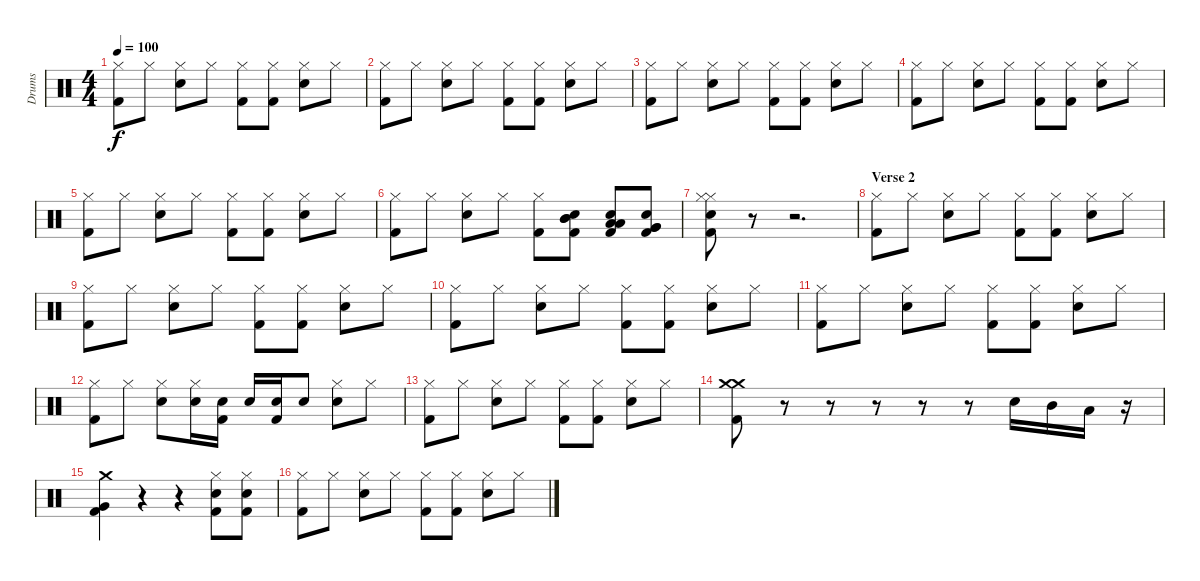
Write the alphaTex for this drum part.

\track ("Drums" "Drums") {instrument percussion}
\staff {score}
\articulation defaults
\ts (4 4)
\tempo 100
\clef neutral
\ks c
("Hi-Hat (closed)" "Kick (hit) 2").8{dy f} "Hi-Hat (closed)".8 ("Hi-Hat (closed)" "Electric Snare (hit)").8 "Hi-Hat (closed)".8 ("Hi-Hat (closed)" "Kick (hit) 2").8 ("Hi-Hat (closed)" "Kick (hit) 2").8 ("Hi-Hat (closed)" "Electric Snare (hit)").8 "Hi-Hat (closed)".8 |
("Hi-Hat (closed)" "Kick (hit) 2").8 "Hi-Hat (closed)".8 ("Hi-Hat (closed)" "Electric Snare (hit)").8 "Hi-Hat (closed)".8 ("Hi-Hat (closed)" "Kick (hit) 2").8 ("Hi-Hat (closed)" "Kick (hit) 2").8 ("Hi-Hat (closed)" "Electric Snare (hit)").8 "Hi-Hat (closed)".8 |
("Hi-Hat (closed)" "Kick (hit) 2").8 "Hi-Hat (closed)".8 ("Hi-Hat (closed)" "Electric Snare (hit)").8 "Hi-Hat (closed)".8 ("Hi-Hat (closed)" "Kick (hit) 2").8 ("Hi-Hat (closed)" "Kick (hit) 2").8 ("Hi-Hat (closed)" "Electric Snare (hit)").8 "Hi-Hat (closed)".8 |
("Hi-Hat (closed)" "Kick (hit) 2").8 "Hi-Hat (closed)".8 ("Hi-Hat (closed)" "Electric Snare (hit)").8 "Hi-Hat (closed)".8 ("Hi-Hat (closed)" "Kick (hit) 2").8 ("Hi-Hat (closed)" "Kick (hit) 2").8 ("Hi-Hat (closed)" "Electric Snare (hit)").8 "Hi-Hat (closed)".8 |
("Hi-Hat (closed)" "Kick (hit) 2").8 "Hi-Hat (closed)".8 ("Hi-Hat (closed)" "Electric Snare (hit)").8 "Hi-Hat (closed)".8 ("Hi-Hat (closed)" "Kick (hit) 2").8 ("Hi-Hat (closed)" "Kick (hit) 2").8 ("Hi-Hat (closed)" "Electric Snare (hit)").8 "Hi-Hat (closed)".8 |
("Hi-Hat (closed)" "Kick (hit) 2").8 "Hi-Hat (closed)".8 ("Hi-Hat (closed)" "Electric Snare (hit)").8 "Hi-Hat (closed)".8 ("Hi-Hat (closed)" "Kick (hit) 2").8 ("Mid Tom (hit)" "Mid Tom (hit)" "Electric Snare (hit)" "Kick (hit) 2").8 ("Low Tom (hit)" "Low Tom (hit)" "Electric Snare (hit)" "Kick (hit) 2").8 ("Electric Snare (hit)" "Very Low Tom (hit)" "Very Low Tom (hit)" "Kick (hit) 2").8 |
("Hi-Hat (closed)" "Hi-Hat (closed)" "Electric Snare (hit)" "Kick (hit) 2").8 r.8 r.2{d} |
\section ("" "Verse 2")
("Hi-Hat (closed)" "Kick (hit) 2").8 "Hi-Hat (closed)".8 ("Hi-Hat (closed)" "Electric Snare (hit)").8 "Hi-Hat (closed)".8 ("Hi-Hat (closed)" "Kick (hit) 2").8 ("Hi-Hat (closed)" "Kick (hit) 2").8 ("Hi-Hat (closed)" "Electric Snare (hit)").8 "Hi-Hat (closed)".8 |
("Hi-Hat (closed)" "Kick (hit) 2").8 "Hi-Hat (closed)".8 ("Hi-Hat (closed)" "Electric Snare (hit)").8 "Hi-Hat (closed)".8 ("Hi-Hat (closed)" "Kick (hit) 2").8 ("Hi-Hat (closed)" "Kick (hit) 2").8 ("Hi-Hat (closed)" "Electric Snare (hit)").8 "Hi-Hat (closed)".8 |
("Hi-Hat (closed)" "Kick (hit) 2").8 "Hi-Hat (closed)".8 ("Hi-Hat (closed)" "Electric Snare (hit)").8 "Hi-Hat (closed)".8 ("Hi-Hat (closed)" "Kick (hit) 2").8 ("Hi-Hat (closed)" "Kick (hit) 2").8 ("Hi-Hat (closed)" "Electric Snare (hit)").8 "Hi-Hat (closed)".8 |
("Hi-Hat (closed)" "Kick (hit) 2").8 "Hi-Hat (closed)".8 ("Hi-Hat (closed)" "Electric Snare (hit)").8 "Hi-Hat (closed)".8 ("Hi-Hat (closed)" "Kick (hit) 2").8 ("Hi-Hat (closed)" "Kick (hit) 2").8 ("Hi-Hat (closed)" "Electric Snare (hit)").8 "Hi-Hat (closed)".8 |
("Hi-Hat (closed)" "Kick (hit) 2").8 "Hi-Hat (closed)".8 ("Hi-Hat (closed)" "Electric Snare (hit)").8 ("Hi-Hat (closed)" "Electric Snare (hit)").16 ("Electric Snare (hit)" "Kick (hit) 2").16 "Electric Snare (hit)".16 ("Electric Snare (hit)" "Kick (hit) 2").16 "Electric Snare (hit)".8 ("Hi-Hat (closed)" "Electric Snare (hit)").8 "Hi-Hat (closed)".8 |
("Hi-Hat (closed)" "Kick (hit) 2").8 "Hi-Hat (closed)".8 ("Hi-Hat (closed)" "Electric Snare (hit)").8 "Hi-Hat (closed)".8 ("Hi-Hat (closed)" "Kick (hit) 2").8 ("Hi-Hat (closed)" "Kick (hit) 2").8 ("Hi-Hat (closed)" "Electric Snare (hit)").8 "Hi-Hat (closed)".8 |
("Crash medium (hit)" "Crash medium (hit)" "Kick (hit) 2").8 r.8 r.8 r.8 r.8 r.8 "Electric Snare (hit)".16 "Mid Tom (hit)".16 "Low Tom (hit)".16 r.16 |
("Crash medium (hit)" "Very Low Tom (hit)" "Kick (hit) 2").4 r.4 r.4 ("Hi-Hat (closed)" "Electric Snare (hit)" "Kick (hit) 2").8 ("Hi-Hat (closed)" "Electric Snare (hit)" "Kick (hit) 2").8 |
("Hi-Hat (closed)" "Kick (hit) 2").8 "Hi-Hat (closed)".8 ("Hi-Hat (closed)" "Electric Snare (hit)").8 "Hi-Hat (closed)".8 ("Hi-Hat (closed)" "Kick (hit) 2").8 ("Hi-Hat (closed)" "Kick (hit) 2").8 ("Hi-Hat (closed)" "Electric Snare (hit)").8 "Hi-Hat (closed)".8
